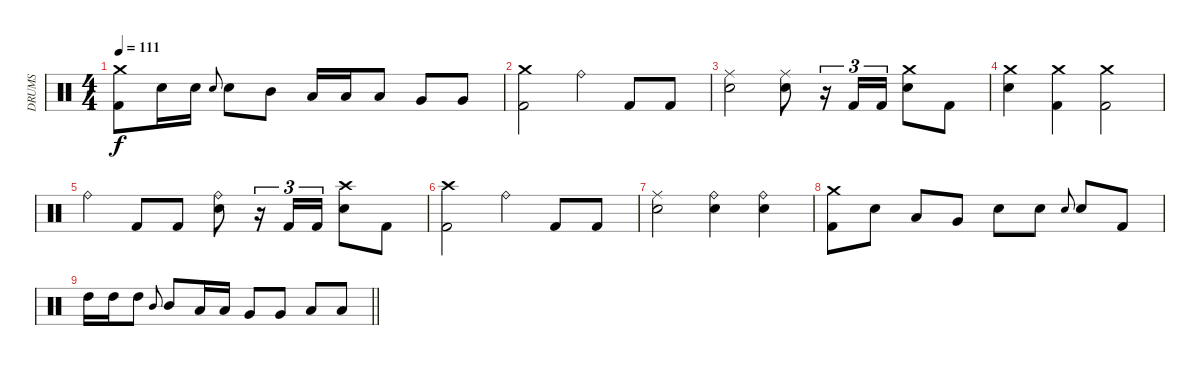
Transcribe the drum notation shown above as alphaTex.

\track ("DRUMS" "DRUMS") {instrument percussion}
\staff {score}
\articulation defaults
\ts (4 4)
\tempo 111
\clef neutral
\ks c
("Crash medium (hit)" "Kick (hit) 2").8{dy f} "Snare (hit) 2".16 "Snare (hit) 2".16 "Snare (hit) 2".8{gr onbeat} "Snare (hit) 2".8 "Mid Tom (hit)".8 "Low Tom (hit)".16 "Low Tom (hit)".16 "Low Tom (hit)".8 "Very Low Tom (hit)".8 "Very Low Tom (hit)".8 |
("Crash medium (hit)" "Kick (hit) 2").2{volume 2} "Ride (bell)".4 "Kick (hit) 2".8 "Kick (hit) 2".8 |
("Ride (middle)" "Snare (hit) 2").2 ("Ride (middle)" "Snare (hit) 2").8 r.16{tu (3 2)} "Kick (hit) 2".16{tu (3 2)} "Kick (hit) 2".16{tu (3 2)} ("Crash medium (hit)" "Snare (hit) 2").8 "Kick (hit) 2".8 |
("Crash medium (hit)" "Snare (hit) 2").4 ("Crash medium (hit)" "Kick (hit) 2").4 ("Crash medium (hit)" "Kick (hit) 2").2 |
"Ride (bell)".4 "Kick (hit) 2".8 "Kick (hit) 2".8 ("Ride (bell)" "Snare (hit) 2").8 r.16{tu (3 2)} "Kick (hit) 2".16{tu (3 2)} "Kick (hit) 2".16{tu (3 2)} ("Crash high (hit)" "Snare (hit) 2").8 "Kick (hit) 2".8 |
("Crash high (hit)" "Kick (hit) 2").2{volume 0} "Ride (bell)".4 "Kick (hit) 2".8 "Kick (hit) 2".8 |
("Ride (middle)" "Snare (hit) 2").2 ("Ride (bell)" "Snare (hit) 2").4 ("Ride (bell)" "Snare (hit) 2").4 |
("Crash medium (hit)" "Kick (hit) 2").8 "Snare (hit) 2".8 "Low Tom (hit)".8 "Very Low Tom (hit)".8 "Snare (hit) 2".8 "Snare (hit) 2".8 "Snare (hit) 2".8{gr onbeat} "Snare (hit) 2".8 "Kick (hit) 2".8 |
\barLineRight lightlight "High Tom (hit)".16 "High Tom (hit)".16 "High Tom (hit)".8 "Mid Tom (hit)".8{gr onbeat} "Mid Tom (hit)".8 "Low Tom (hit)".16 "Low Tom (hit)".16 "Very Low Tom (hit)".8 "Very Low Tom (hit)".8 "Low Floor Tom (hit)".8 "Low Floor Tom (hit)".8
